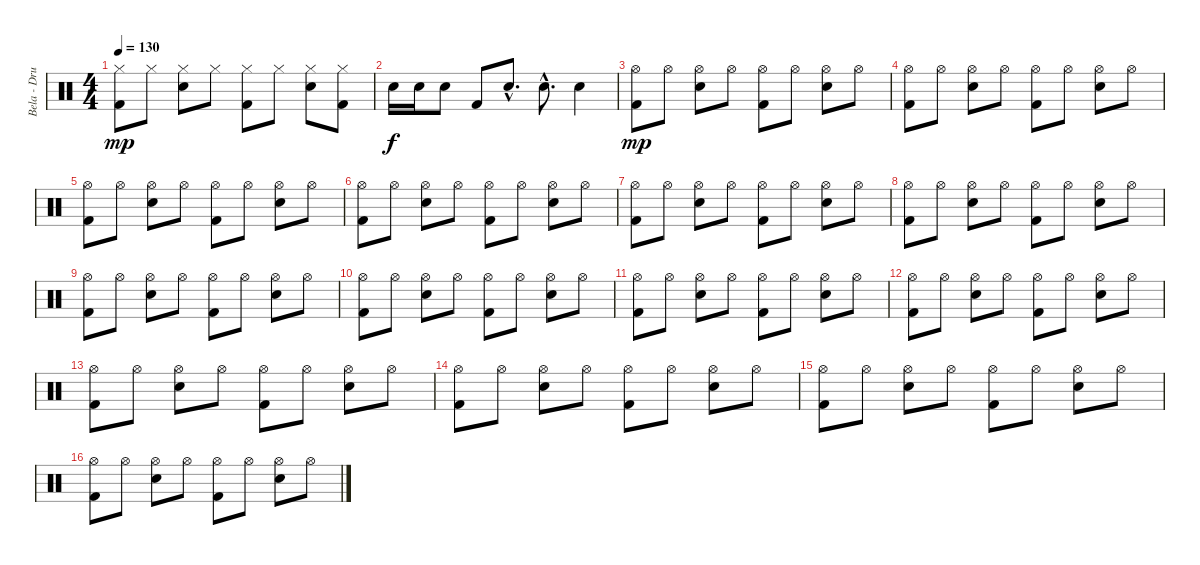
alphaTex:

\track ("Bela - Drums" "Bela - Dru") {instrument percussion}
\staff {score}
\articulation defaults
\ts (4 4)
\tempo 130
\clef neutral
\ks c
("Hi-Hat (closed)" "Kick (hit) 2").8{dy mp} "Hi-Hat (closed)".8 ("Hi-Hat (closed)" "Snare (hit) 2").8 "Hi-Hat (closed)".8 ("Hi-Hat (closed)" "Kick (hit) 2").8 "Hi-Hat (closed)".8 ("Hi-Hat (closed)" "Snare (hit) 2").8 ("Hi-Hat (closed)" "Kick (hit) 2").8 |
"Snare (hit) 2".16{dy f} "Snare (hit) 2".16 "Snare (hit) 2".8 "Kick (hit) 2".8 "Snare (hit) 2"{hac}.8{d} "Snare (hit) 2"{hac}.8{d} "Snare (hit) 2".4 |
("Hi-Hat (open)" "Kick (hit) 2").8{dy mp} "Hi-Hat (open)".8 ("Hi-Hat (open)" "Snare (hit) 2").8 "Hi-Hat (open)".8 ("Hi-Hat (open)" "Kick (hit) 2").8 "Hi-Hat (open)".8 ("Hi-Hat (open)" "Snare (hit) 2").8 "Hi-Hat (open)".8 |
("Hi-Hat (open)" "Kick (hit) 2").8 "Hi-Hat (open)".8 ("Hi-Hat (open)" "Snare (hit) 2").8 "Hi-Hat (open)".8 ("Hi-Hat (open)" "Kick (hit) 2").8 "Hi-Hat (open)".8 ("Hi-Hat (open)" "Snare (hit) 2").8 "Hi-Hat (open)".8 |
("Hi-Hat (open)" "Kick (hit) 2").8 "Hi-Hat (open)".8 ("Hi-Hat (open)" "Snare (hit) 2").8 "Hi-Hat (open)".8 ("Hi-Hat (open)" "Kick (hit) 2").8 "Hi-Hat (open)".8 ("Hi-Hat (open)" "Snare (hit) 2").8 "Hi-Hat (open)".8 |
("Hi-Hat (open)" "Kick (hit) 2").8 "Hi-Hat (open)".8 ("Hi-Hat (open)" "Snare (hit) 2").8 "Hi-Hat (open)".8 ("Hi-Hat (open)" "Kick (hit) 2").8 "Hi-Hat (open)".8 ("Hi-Hat (open)" "Snare (hit) 2").8 "Hi-Hat (open)".8 |
("Hi-Hat (open)" "Kick (hit) 2").8 "Hi-Hat (open)".8 ("Hi-Hat (open)" "Snare (hit) 2").8 "Hi-Hat (open)".8 ("Hi-Hat (open)" "Kick (hit) 2").8 "Hi-Hat (open)".8 ("Hi-Hat (open)" "Snare (hit) 2").8 "Hi-Hat (open)".8 |
("Hi-Hat (open)" "Kick (hit) 2").8 "Hi-Hat (open)".8 ("Hi-Hat (open)" "Snare (hit) 2").8 "Hi-Hat (open)".8 ("Hi-Hat (open)" "Kick (hit) 2").8 "Hi-Hat (open)".8 ("Hi-Hat (open)" "Snare (hit) 2").8 "Hi-Hat (open)".8 |
("Hi-Hat (open)" "Kick (hit) 2").8 "Hi-Hat (open)".8 ("Hi-Hat (open)" "Snare (hit) 2").8 "Hi-Hat (open)".8 ("Hi-Hat (open)" "Kick (hit) 2").8 "Hi-Hat (open)".8 ("Hi-Hat (open)" "Snare (hit) 2").8 "Hi-Hat (open)".8 |
("Hi-Hat (open)" "Kick (hit) 2").8 "Hi-Hat (open)".8 ("Hi-Hat (open)" "Snare (hit) 2").8 "Hi-Hat (open)".8 ("Hi-Hat (open)" "Kick (hit) 2").8 "Hi-Hat (open)".8 ("Hi-Hat (open)" "Snare (hit) 2").8 "Hi-Hat (open)".8 |
("Hi-Hat (open)" "Kick (hit) 2").8 "Hi-Hat (open)".8 ("Hi-Hat (open)" "Snare (hit) 2").8 "Hi-Hat (open)".8 ("Hi-Hat (open)" "Kick (hit) 2").8 "Hi-Hat (open)".8 ("Hi-Hat (open)" "Snare (hit) 2").8 "Hi-Hat (open)".8 |
("Hi-Hat (open)" "Kick (hit) 2").8 "Hi-Hat (open)".8 ("Hi-Hat (open)" "Snare (hit) 2").8 "Hi-Hat (open)".8 ("Hi-Hat (open)" "Kick (hit) 2").8 "Hi-Hat (open)".8 ("Hi-Hat (open)" "Snare (hit) 2").8 "Hi-Hat (open)".8 |
("Hi-Hat (open)" "Kick (hit) 2").8 "Hi-Hat (open)".8 ("Hi-Hat (open)" "Snare (hit) 2").8 "Hi-Hat (open)".8 ("Hi-Hat (open)" "Kick (hit) 2").8 "Hi-Hat (open)".8 ("Hi-Hat (open)" "Snare (hit) 2").8 "Hi-Hat (open)".8 |
("Hi-Hat (open)" "Kick (hit) 2").8 "Hi-Hat (open)".8 ("Hi-Hat (open)" "Snare (hit) 2").8 "Hi-Hat (open)".8 ("Hi-Hat (open)" "Kick (hit) 2").8 "Hi-Hat (open)".8 ("Hi-Hat (open)" "Snare (hit) 2").8 "Hi-Hat (open)".8 |
("Hi-Hat (open)" "Kick (hit) 2").8 "Hi-Hat (open)".8 ("Hi-Hat (open)" "Snare (hit) 2").8 "Hi-Hat (open)".8 ("Hi-Hat (open)" "Kick (hit) 2").8 "Hi-Hat (open)".8 ("Hi-Hat (open)" "Snare (hit) 2").8 "Hi-Hat (open)".8 |
("Hi-Hat (open)" "Kick (hit) 2").8 "Hi-Hat (open)".8 ("Hi-Hat (open)" "Snare (hit) 2").8 "Hi-Hat (open)".8 ("Hi-Hat (open)" "Kick (hit) 2").8 "Hi-Hat (open)".8 ("Hi-Hat (open)" "Snare (hit) 2").8 "Hi-Hat (open)".8
